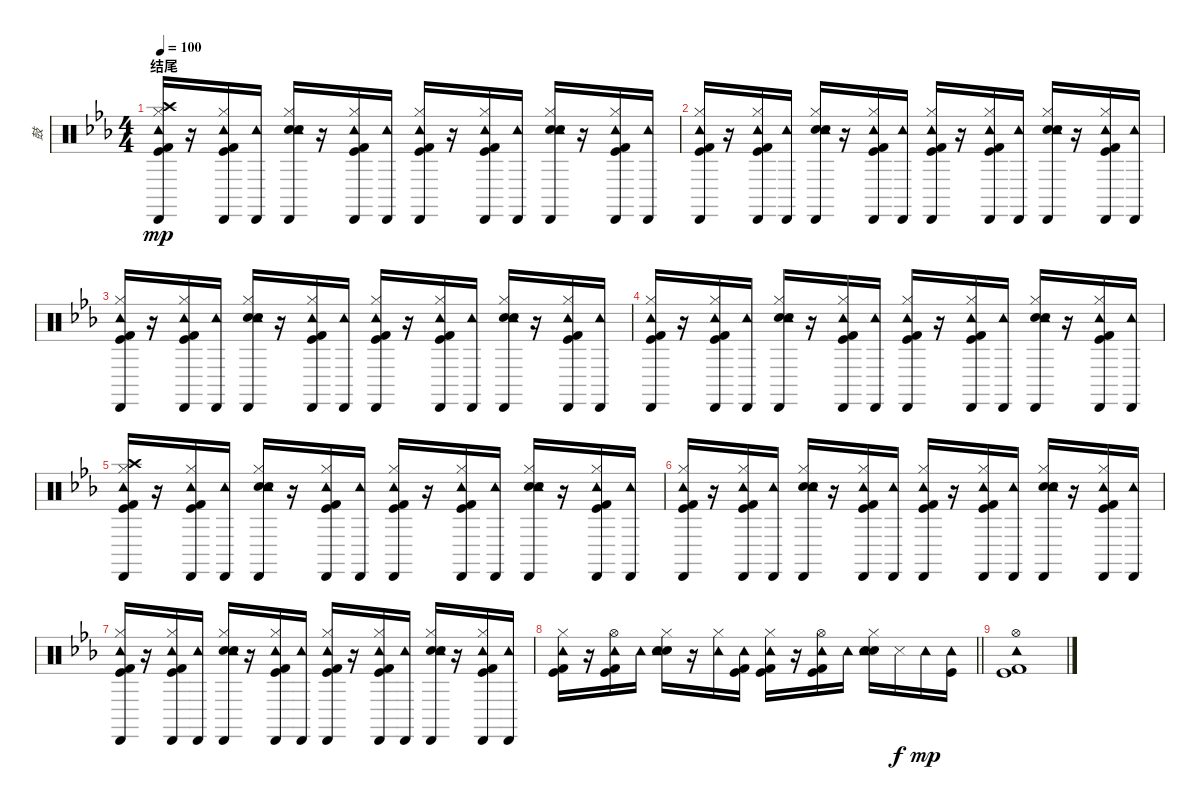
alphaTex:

\track ("鼓" "鼓") {instrument percussion}
\staff {score}
\articulation defaults
\ts (4 4)
\section ("" "结尾")
\tempo 100
\clef neutral
\ks eb
("Kick (hit)" "Kick (hit) 2" "Hi-Hat (closed)" "Cabasa (hit)" "Crash high (hit)" "Tambourine (hit)").16{dy mp} r.16 ("Kick (hit)" "Kick (hit) 2" "Hi-Hat (closed)" "Cabasa (hit)" "Tambourine (hit)").16 ("Cabasa (hit)" "Tambourine (hit)").16 ("Electric Snare (hit)" "Hand Clap (hit)" "Hi-Hat (closed)" "Cabasa (hit)" "Tambourine (hit)").16 r.16 ("Kick (hit)" "Kick (hit) 2" "Cabasa (hit)" "Tambourine (hit)" "Hi-Hat (closed)").16 ("Cabasa (hit)" "Tambourine (hit)").16 ("Kick (hit)" "Kick (hit) 2" "Hi-Hat (closed)" "Cabasa (hit)" "Tambourine (hit)").16 r.16 ("Kick (hit)" "Kick (hit) 2" "Hi-Hat (closed)" "Cabasa (hit)" "Tambourine (hit)").16 ("Cabasa (hit)" "Tambourine (hit)").16 ("Electric Snare (hit)" "Hand Clap (hit)" "Hi-Hat (closed)" "Cabasa (hit)" "Tambourine (hit)").16 r.16 ("Kick (hit)" "Kick (hit) 2" "Cabasa (hit)" "Tambourine (hit)" "Hi-Hat (closed)").16 ("Cabasa (hit)" "Tambourine (hit)").16 |
("Kick (hit)" "Kick (hit) 2" "Hi-Hat (closed)" "Cabasa (hit)" "Tambourine (hit)").16 r.16 ("Kick (hit)" "Kick (hit) 2" "Hi-Hat (closed)" "Cabasa (hit)" "Tambourine (hit)").16 ("Cabasa (hit)" "Tambourine (hit)").16 ("Electric Snare (hit)" "Hand Clap (hit)" "Hi-Hat (closed)" "Cabasa (hit)" "Tambourine (hit)").16 r.16 ("Kick (hit)" "Kick (hit) 2" "Cabasa (hit)" "Tambourine (hit)" "Hi-Hat (closed)").16 ("Cabasa (hit)" "Tambourine (hit)").16 ("Kick (hit)" "Kick (hit) 2" "Hi-Hat (closed)" "Cabasa (hit)" "Tambourine (hit)").16 r.16 ("Kick (hit)" "Kick (hit) 2" "Hi-Hat (closed)" "Cabasa (hit)" "Tambourine (hit)").16 ("Cabasa (hit)" "Tambourine (hit)").16 ("Electric Snare (hit)" "Hand Clap (hit)" "Hi-Hat (closed)" "Cabasa (hit)" "Tambourine (hit)").16 r.16 ("Kick (hit)" "Kick (hit) 2" "Cabasa (hit)" "Tambourine (hit)" "Hi-Hat (closed)").16 ("Cabasa (hit)" "Tambourine (hit)").16 |
("Kick (hit)" "Kick (hit) 2" "Hi-Hat (closed)" "Cabasa (hit)" "Tambourine (hit)").16 r.16 ("Kick (hit)" "Kick (hit) 2" "Hi-Hat (closed)" "Cabasa (hit)" "Tambourine (hit)").16 ("Cabasa (hit)" "Tambourine (hit)").16 ("Electric Snare (hit)" "Hand Clap (hit)" "Hi-Hat (closed)" "Cabasa (hit)" "Tambourine (hit)").16 r.16 ("Kick (hit)" "Kick (hit) 2" "Cabasa (hit)" "Tambourine (hit)" "Hi-Hat (closed)").16 ("Cabasa (hit)" "Tambourine (hit)").16 ("Kick (hit)" "Kick (hit) 2" "Hi-Hat (closed)" "Cabasa (hit)" "Tambourine (hit)").16 r.16 ("Kick (hit)" "Kick (hit) 2" "Hi-Hat (closed)" "Cabasa (hit)" "Tambourine (hit)").16 ("Cabasa (hit)" "Tambourine (hit)").16 ("Electric Snare (hit)" "Hand Clap (hit)" "Hi-Hat (closed)" "Cabasa (hit)" "Tambourine (hit)").16 r.16 ("Kick (hit)" "Kick (hit) 2" "Cabasa (hit)" "Tambourine (hit)" "Hi-Hat (closed)").16 ("Cabasa (hit)" "Tambourine (hit)").16 |
("Kick (hit)" "Kick (hit) 2" "Hi-Hat (closed)" "Cabasa (hit)" "Tambourine (hit)").16 r.16 ("Kick (hit)" "Kick (hit) 2" "Hi-Hat (closed)" "Cabasa (hit)" "Tambourine (hit)").16 ("Cabasa (hit)" "Tambourine (hit)").16 ("Electric Snare (hit)" "Hand Clap (hit)" "Hi-Hat (closed)" "Cabasa (hit)" "Tambourine (hit)").16 r.16 ("Kick (hit)" "Kick (hit) 2" "Cabasa (hit)" "Tambourine (hit)" "Hi-Hat (closed)").16 ("Cabasa (hit)" "Tambourine (hit)").16 ("Kick (hit)" "Kick (hit) 2" "Hi-Hat (closed)" "Cabasa (hit)" "Tambourine (hit)").16 r.16 ("Kick (hit)" "Kick (hit) 2" "Hi-Hat (closed)" "Cabasa (hit)" "Tambourine (hit)").16 ("Cabasa (hit)" "Tambourine (hit)").16 ("Electric Snare (hit)" "Hand Clap (hit)" "Hi-Hat (closed)" "Cabasa (hit)" "Tambourine (hit)").16 r.16 ("Kick (hit)" "Kick (hit) 2" "Cabasa (hit)" "Tambourine (hit)" "Hi-Hat (closed)").16 ("Cabasa (hit)" "Tambourine (hit)").16 |
("Kick (hit)" "Kick (hit) 2" "Hi-Hat (closed)" "Cabasa (hit)" "Tambourine (hit)" "Crash high (hit)").16 r.16 ("Kick (hit)" "Kick (hit) 2" "Hi-Hat (closed)" "Cabasa (hit)" "Tambourine (hit)").16 ("Cabasa (hit)" "Tambourine (hit)").16 ("Electric Snare (hit)" "Hand Clap (hit)" "Hi-Hat (closed)" "Cabasa (hit)" "Tambourine (hit)").16 r.16 ("Kick (hit)" "Kick (hit) 2" "Cabasa (hit)" "Tambourine (hit)" "Hi-Hat (closed)").16 ("Cabasa (hit)" "Tambourine (hit)").16 ("Kick (hit)" "Kick (hit) 2" "Hi-Hat (closed)" "Cabasa (hit)" "Tambourine (hit)").16 r.16 ("Kick (hit)" "Kick (hit) 2" "Hi-Hat (closed)" "Cabasa (hit)" "Tambourine (hit)").16 ("Cabasa (hit)" "Tambourine (hit)").16 ("Electric Snare (hit)" "Hand Clap (hit)" "Hi-Hat (closed)" "Cabasa (hit)" "Tambourine (hit)").16 r.16 ("Kick (hit)" "Kick (hit) 2" "Cabasa (hit)" "Tambourine (hit)" "Hi-Hat (closed)").16 ("Cabasa (hit)" "Tambourine (hit)").16 |
("Kick (hit)" "Kick (hit) 2" "Hi-Hat (closed)" "Cabasa (hit)" "Tambourine (hit)").16 r.16 ("Kick (hit)" "Kick (hit) 2" "Hi-Hat (closed)" "Cabasa (hit)" "Tambourine (hit)").16 ("Cabasa (hit)" "Tambourine (hit)").16 ("Electric Snare (hit)" "Hand Clap (hit)" "Hi-Hat (closed)" "Cabasa (hit)" "Tambourine (hit)").16 r.16 ("Kick (hit)" "Kick (hit) 2" "Cabasa (hit)" "Tambourine (hit)" "Hi-Hat (closed)").16 ("Cabasa (hit)" "Tambourine (hit)").16 ("Kick (hit)" "Kick (hit) 2" "Hi-Hat (closed)" "Cabasa (hit)" "Tambourine (hit)").16 r.16 ("Kick (hit)" "Kick (hit) 2" "Hi-Hat (closed)" "Cabasa (hit)" "Tambourine (hit)").16 ("Cabasa (hit)" "Tambourine (hit)").16 ("Electric Snare (hit)" "Hand Clap (hit)" "Hi-Hat (closed)" "Cabasa (hit)" "Tambourine (hit)").16 r.16 ("Kick (hit)" "Kick (hit) 2" "Cabasa (hit)" "Tambourine (hit)" "Hi-Hat (closed)").16 ("Cabasa (hit)" "Tambourine (hit)").16 |
("Kick (hit)" "Kick (hit) 2" "Hi-Hat (closed)" "Cabasa (hit)" "Tambourine (hit)").16 r.16 ("Kick (hit)" "Kick (hit) 2" "Hi-Hat (closed)" "Cabasa (hit)" "Tambourine (hit)").16 ("Cabasa (hit)" "Tambourine (hit)").16 ("Electric Snare (hit)" "Hand Clap (hit)" "Hi-Hat (closed)" "Cabasa (hit)" "Tambourine (hit)").16 r.16 ("Kick (hit)" "Kick (hit) 2" "Cabasa (hit)" "Tambourine (hit)" "Hi-Hat (closed)").16 ("Cabasa (hit)" "Tambourine (hit)").16 ("Kick (hit)" "Kick (hit) 2" "Hi-Hat (closed)" "Cabasa (hit)" "Tambourine (hit)").16 r.16 ("Kick (hit)" "Kick (hit) 2" "Hi-Hat (closed)" "Cabasa (hit)" "Tambourine (hit)").16 ("Cabasa (hit)" "Tambourine (hit)").16 ("Electric Snare (hit)" "Hand Clap (hit)" "Hi-Hat (closed)" "Cabasa (hit)" "Tambourine (hit)").16 r.16 ("Kick (hit)" "Kick (hit) 2" "Cabasa (hit)" "Tambourine (hit)" "Hi-Hat (closed)").16 ("Cabasa (hit)" "Tambourine (hit)").16 |
\barLineRight lightlight
("Kick (hit)" "Kick (hit) 2" "Tambourine (hit)" "Hi-Hat (closed)").16 r.16 ("Kick (hit)" "Kick (hit) 2" "Tambourine (hit)" "Hi-Hat (open)").16 "Tambourine (hit)".16 ("Hand Clap (hit)" "Electric Snare (hit)" "Tambourine (hit)" "Hi-Hat (closed)").16 r.16 ("Tambourine (hit)" "Hi-Hat (closed)").16 ("Kick (hit)" "Kick (hit) 2" "Tambourine (hit)").16 ("Kick (hit)" "Kick (hit) 2" "Tambourine (hit)" "Hi-Hat (closed)").16 r.16 ("Kick (hit)" "Kick (hit) 2" "Tambourine (hit)" "Hi-Hat (open)").16 "Tambourine (hit)".16 ("Hand Clap (hit)" "Electric Snare (hit)" "Tambourine (hit)" "Hi-Hat (closed)").16 "Snare (side stick) 3".16{dy f} "Tambourine (hit)".16{dy mp} ("Tambourine (hit)" "Kick (hit)").16 |
("Kick (hit)" "Kick (hit) 2" "Tambourine (hit)" "Hi-Hat (open)").1
